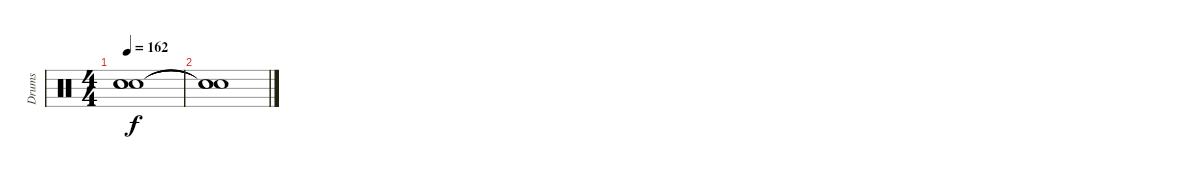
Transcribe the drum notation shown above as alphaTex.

\track ("Drums" "Drums") {instrument percussion}
\staff {score}
\articulation defaults
\ts (4 4)
\tempo 162
\clef neutral
\ks c
("Snare (hit)"{t} "Snare (hit)"{t} "Snare (hit)"{t}).1{dy f} |
("Snare (hit)"{t} "Snare (hit)"{t} "Snare (hit)"{t}).1
